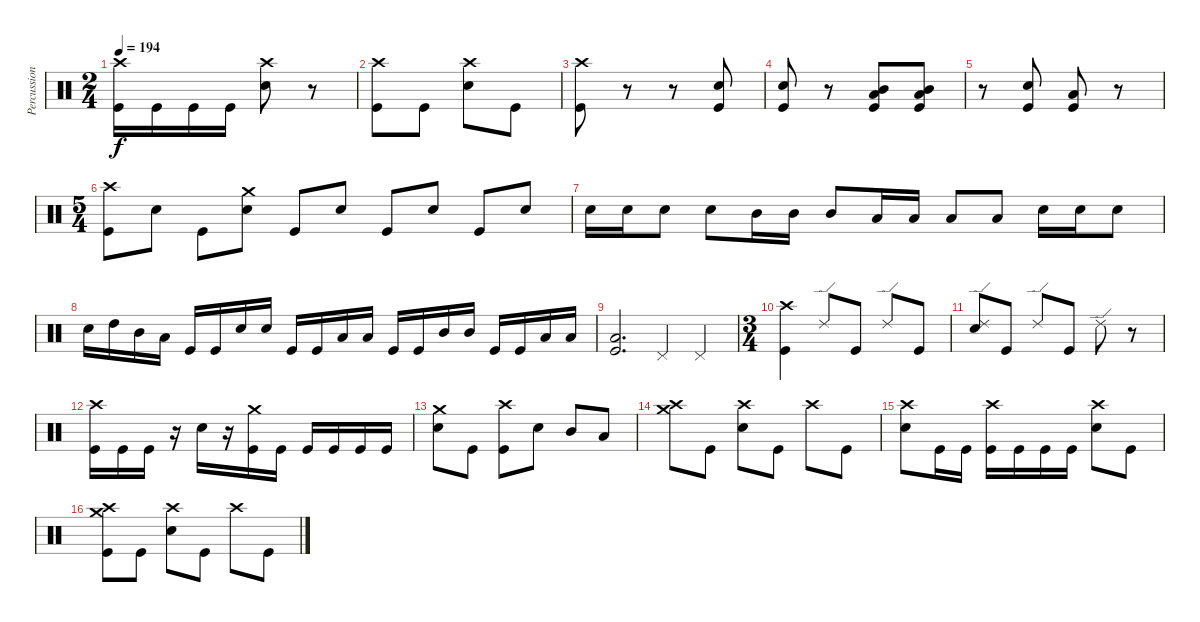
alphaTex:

\track ("Percussion" "Percussion") {instrument percussion}
\staff {score}
\articulation defaults
\ts (2 4)
\tempo 194
\clef neutral
\ks c
("Crash high (hit)" "Kick (hit)").16{dy f} "Kick (hit)".16 "Kick (hit)".16 "Kick (hit)".16 ("Crash high (hit)" "Snare (hit) 2").8 r.8 |
("Crash high (hit)" "Kick (hit)").8 "Kick (hit)".8 ("Crash high (hit)" "Snare (hit) 2").8 "Kick (hit)".8 |
("Crash high (hit)" "Kick (hit)").8 r.8 r.8 ("Snare (hit) 2" "Kick (hit)").8 |
("Snare (hit) 2" "Kick (hit)").8 r.8 ("Low Tom (hit)" "Mid Tom (hit)" "Kick (hit)").8 ("Low Tom (hit)" "Mid Tom (hit)" "Kick (hit)").8 |
r.8 ("Snare (hit) 2" "Kick (hit)").8 ("Low Tom (hit)" "Kick (hit)").8 r.8 |
\ts (5 4)
("Crash high (hit)" "Kick (hit)").8 "Snare (hit) 2".8 "Kick (hit)".8 ("Crash medium (hit)" "Snare (hit) 2").8 "Kick (hit)".8 "Snare (hit) 2".8 "Kick (hit)".8 "Snare (hit) 2".8 "Kick (hit)".8 "Snare (hit) 2".8 |
"Snare (hit) 2".16 "Snare (hit) 2".16 "Snare (hit) 2".8 "Snare (hit) 2".8 "Mid Tom (hit)".16 "Mid Tom (hit)".16 "Mid Tom (hit)".8 "Low Tom (hit)".16 "Low Tom (hit)".16 "Low Tom (hit)".8 "Low Tom (hit)".8 "Snare (hit) 2".16 "Snare (hit) 2".16 "Snare (hit) 2".8 |
"Snare (hit) 2".16 "High Tom (hit)".16 "Mid Tom (hit)".16 "Low Tom (hit)".16 "Kick (hit)".16 "Kick (hit)".16 "Snare (hit) 2".16 "Snare (hit) 2".16 "Kick (hit)".16 "Kick (hit)".16 "Low Tom (hit)".16 "Low Tom (hit)".16 "Kick (hit)".16 "Kick (hit)".16 "Mid Tom (hit)".16 "Mid Tom (hit)".16 "Kick (hit)".16 "Kick (hit)".16 "Low Tom (hit)".16 "Low Tom (hit)".16 |
("Kick (hit)" "Low Tom (hit)").2{d} "Pedal Hi-Hat (hit)".4 "Pedal Hi-Hat (hit)".4 |
\ts (3 4)
("Crash high (hit)" "Kick (hit)").4 "Ride (edge) 2".8 "Kick (hit)".8 "Ride (edge) 2".8 "Kick (hit)".8 |
("Ride (edge) 2" "Snare (hit) 2").8 "Kick (hit)".8 "Ride (edge) 2".8 "Kick (hit)".8 "Ride (edge) 2".8 r.8 |
("Crash high (hit)" "Kick (hit)").16 "Kick (hit)".16 "Kick (hit)".16 r.16 "Snare (hit) 2".16 r.16 ("Crash medium (hit)" "Kick (hit)").16 "Kick (hit)".16 "Kick (hit)".16 "Kick (hit)".16 "Kick (hit)".16 "Kick (hit)".16 |
("Snare (hit) 2" "Crash medium (hit)").8 "Kick (hit)".8 ("Crash high (hit)" "Kick (hit)").8 "Snare (hit) 2".8 "Mid Tom (hit)".8 "Low Tom (hit)".8 |
("Crash high (hit)" "Crash medium (hit)").8 "Kick (hit)".8 ("Snare (hit) 2" "Crash high (hit)").8 "Kick (hit)".8 "Crash high (hit)".8 "Kick (hit)".8 |
("Snare (hit) 2" "Crash high (hit)").8 "Kick (hit)".16 "Kick (hit)".16 ("Kick (hit)" "Crash high (hit)").16 "Kick (hit)".16 "Kick (hit)".16 "Kick (hit)".16 ("Snare (hit) 2" "Crash high (hit)").8 "Kick (hit)".8 |
("Kick (hit)" "Crash high (hit)" "Crash medium (hit)").8 "Kick (hit)".8 ("Snare (hit) 2" "Crash high (hit)").8 "Kick (hit)".8 "Crash high (hit)".8 "Kick (hit)".8
